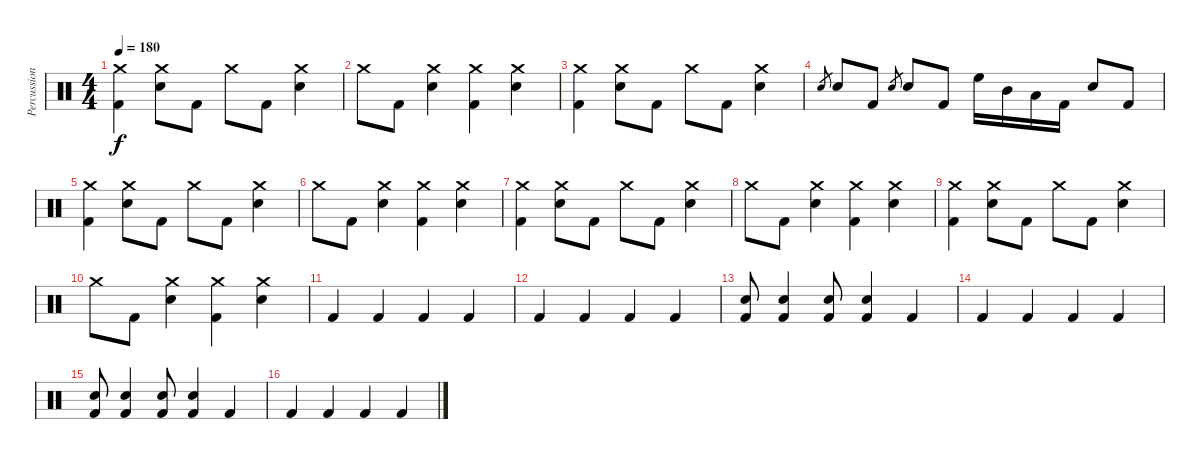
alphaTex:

\track ("Percussion" "Percussion") {instrument percussion}
\staff {score}
\articulation defaults
\ts (4 4)
\tempo 180
\clef neutral
\ks c
("Kick (hit) 2" "Crash medium (hit)").4{dy f} ("Electric Snare (hit)" "Crash medium (hit)").8 "Kick (hit) 2".8 "Crash medium (hit)".8 "Kick (hit) 2".8 ("Electric Snare (hit)" "Crash medium (hit)").4 |
"Crash medium (hit)".8 "Kick (hit) 2".8 ("Electric Snare (hit)" "Crash medium (hit)").4 ("Kick (hit) 2" "Crash medium (hit)").4 ("Electric Snare (hit)" "Crash medium (hit)").4 |
("Kick (hit) 2" "Crash medium (hit)").4 ("Electric Snare (hit)" "Crash medium (hit)").8 "Kick (hit) 2".8 "Crash medium (hit)".8 "Kick (hit) 2".8 ("Electric Snare (hit)" "Crash medium (hit)").4 |
"Electric Snare (hit)".8{gr} "Electric Snare (hit)".8 "Kick (hit) 2".8 "Electric Snare (hit)".8{gr} "Electric Snare (hit)".8 "Kick (hit) 2".8 "High Floor Tom (hit)".16 "Mid Tom (hit)".16 "Low Tom (hit)".16 "Kick (hit) 2".16 "Electric Snare (hit)".8 "Kick (hit) 2".8 |
("Kick (hit) 2" "Crash medium (hit)").4 ("Electric Snare (hit)" "Crash medium (hit)").8 "Kick (hit) 2".8 "Crash medium (hit)".8 "Kick (hit) 2".8 ("Electric Snare (hit)" "Crash medium (hit)").4 |
"Crash medium (hit)".8 "Kick (hit) 2".8 ("Electric Snare (hit)" "Crash medium (hit)").4 ("Kick (hit) 2" "Crash medium (hit)").4 ("Electric Snare (hit)" "Crash medium (hit)").4 |
("Kick (hit) 2" "Crash medium (hit)").4 ("Electric Snare (hit)" "Crash medium (hit)").8 "Kick (hit) 2".8 "Crash medium (hit)".8 "Kick (hit) 2".8 ("Electric Snare (hit)" "Crash medium (hit)").4 |
"Crash medium (hit)".8 "Kick (hit) 2".8 ("Electric Snare (hit)" "Crash medium (hit)").4 ("Kick (hit) 2" "Crash medium (hit)").4 ("Electric Snare (hit)" "Crash medium (hit)").4 |
("Kick (hit) 2" "Crash medium (hit)").4 ("Electric Snare (hit)" "Crash medium (hit)").8 "Kick (hit) 2".8 "Crash medium (hit)".8 "Kick (hit) 2".8 ("Electric Snare (hit)" "Crash medium (hit)").4 |
"Crash medium (hit)".8 "Kick (hit) 2".8 ("Electric Snare (hit)" "Crash medium (hit)").4 ("Kick (hit) 2" "Crash medium (hit)").4 ("Electric Snare (hit)" "Crash medium (hit)").4 |
"Kick (hit) 2".4 "Kick (hit) 2".4 "Kick (hit) 2".4 "Kick (hit) 2".4 |
"Kick (hit) 2".4 "Kick (hit) 2".4 "Kick (hit) 2".4 "Kick (hit) 2".4 |
("Electric Snare (hit)" "Kick (hit) 2").8 ("Electric Snare (hit)" "Kick (hit) 2").4 ("Electric Snare (hit)" "Kick (hit) 2").8 ("Electric Snare (hit)" "Kick (hit) 2").4 "Kick (hit) 2".4 |
"Kick (hit) 2".4 "Kick (hit) 2".4 "Kick (hit) 2".4 "Kick (hit) 2".4 |
("Electric Snare (hit)" "Kick (hit) 2").8 ("Electric Snare (hit)" "Kick (hit) 2").4 ("Electric Snare (hit)" "Kick (hit) 2").8 ("Electric Snare (hit)" "Kick (hit) 2").4 "Kick (hit) 2".4 |
"Kick (hit) 2".4 "Kick (hit) 2".4 "Kick (hit) 2".4 "Kick (hit) 2".4
